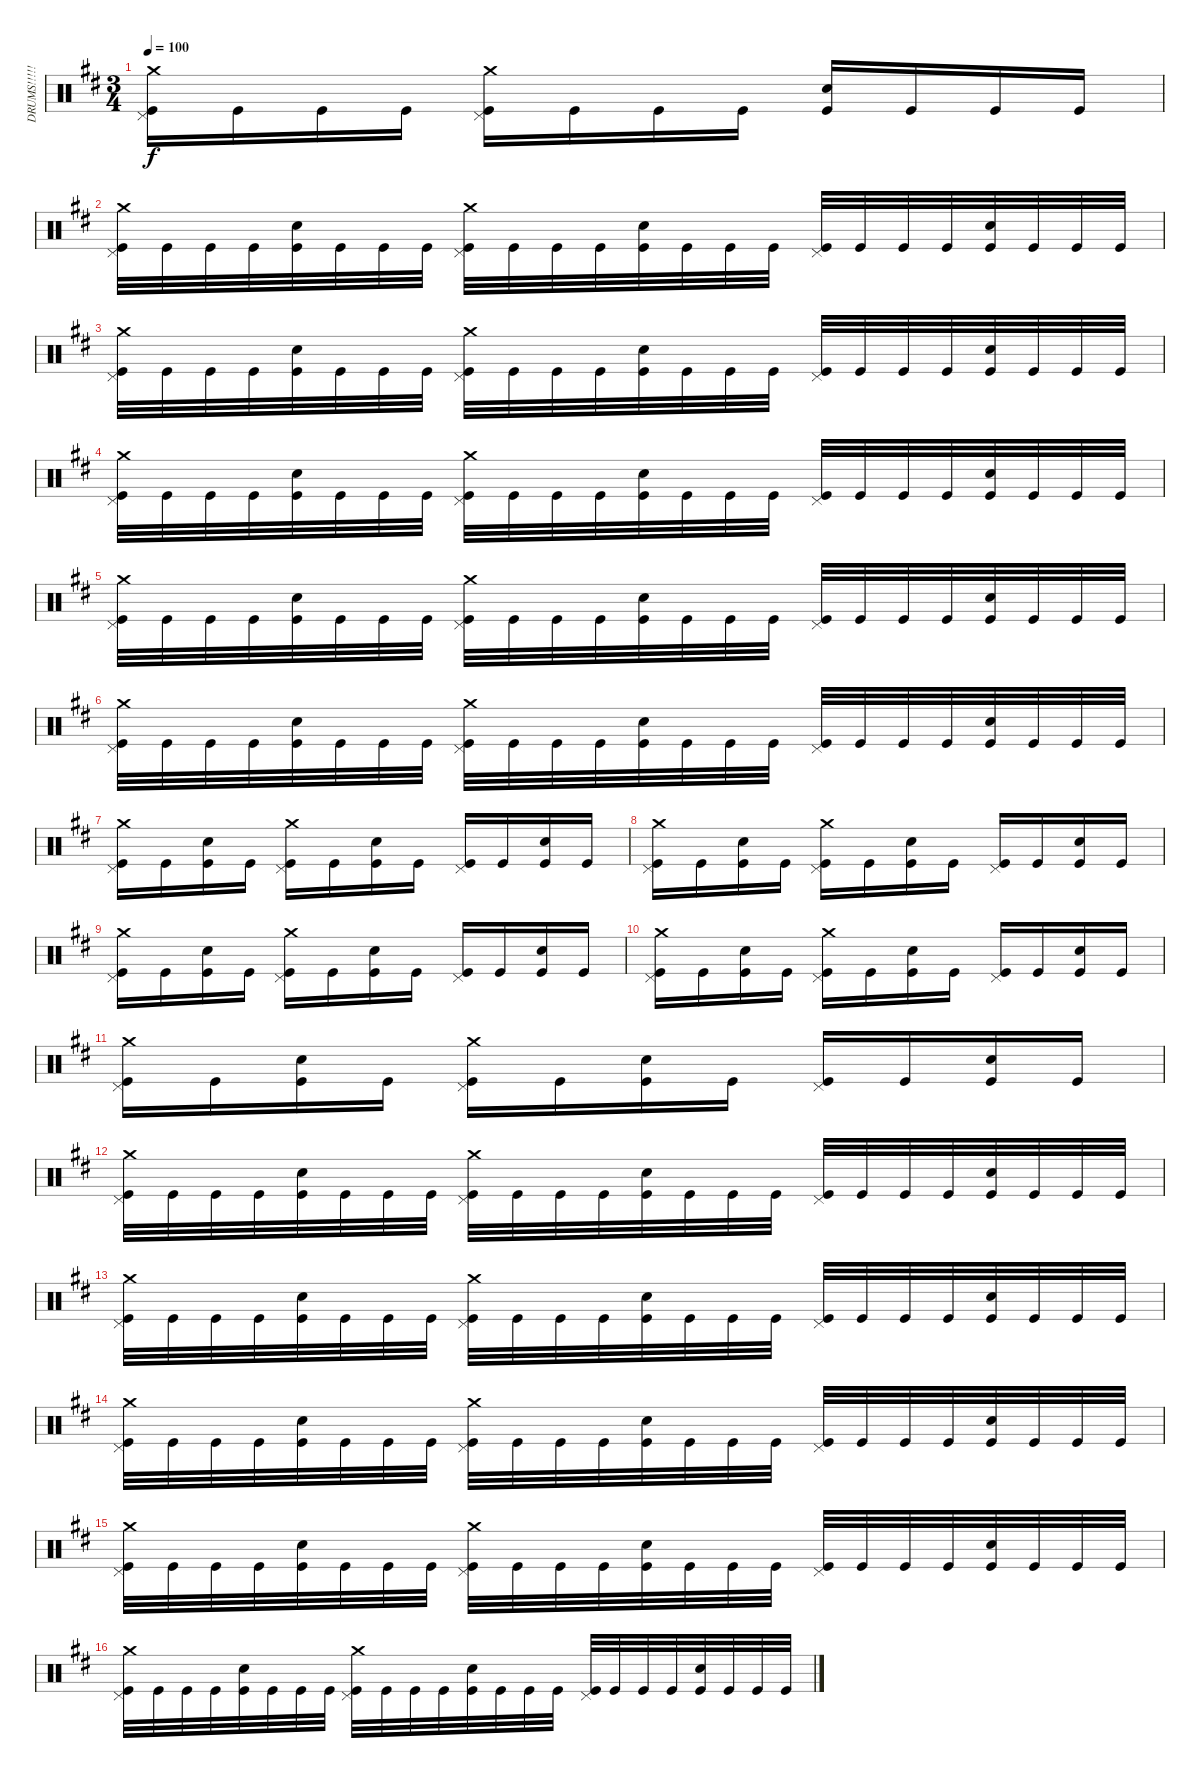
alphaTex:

\track ("DRUMS!!!!!" "DRUMS!!!!!") {instrument percussion}
\staff {score}
\articulation defaults
\ts (3 4)
\tempo 100
\clef neutral
\ks d
("Kick (hit)" "Pedal Hi-Hat (hit)" "Crash medium (hit)").16{dy f} "Kick (hit)".16 "Kick (hit)".16 "Kick (hit)".16 ("Kick (hit)" "Pedal Hi-Hat (hit)" "Crash medium (hit)").16 "Kick (hit)".16 "Kick (hit)".16 "Kick (hit)".16 ("Kick (hit)" "Snare (hit) 2").16 "Kick (hit)".16 "Kick (hit)".16 "Kick (hit)".16 |
("Kick (hit)" "Pedal Hi-Hat (hit)" "Crash medium (hit)").32 "Kick (hit)".32 "Kick (hit)".32 "Kick (hit)".32 ("Kick (hit)" "Snare (hit) 2").32 "Kick (hit)".32 "Kick (hit)".32 "Kick (hit)".32 ("Kick (hit)" "Pedal Hi-Hat (hit)" "Crash medium (hit)").32 "Kick (hit)".32 "Kick (hit)".32 "Kick (hit)".32 ("Kick (hit)" "Snare (hit) 2").32 "Kick (hit)".32 "Kick (hit)".32 "Kick (hit)".32 ("Kick (hit)" "Pedal Hi-Hat (hit)").32 "Kick (hit)".32 "Kick (hit)".32 "Kick (hit)".32 ("Kick (hit)" "Snare (hit) 2").32 "Kick (hit)".32 "Kick (hit)".32 "Kick (hit)".32 |
("Kick (hit)" "Pedal Hi-Hat (hit)" "Crash medium (hit)").32 "Kick (hit)".32 "Kick (hit)".32 "Kick (hit)".32 ("Kick (hit)" "Snare (hit) 2").32 "Kick (hit)".32 "Kick (hit)".32 "Kick (hit)".32 ("Kick (hit)" "Pedal Hi-Hat (hit)" "Crash medium (hit)").32 "Kick (hit)".32 "Kick (hit)".32 "Kick (hit)".32 ("Kick (hit)" "Snare (hit) 2").32 "Kick (hit)".32 "Kick (hit)".32 "Kick (hit)".32 ("Kick (hit)" "Pedal Hi-Hat (hit)").32 "Kick (hit)".32 "Kick (hit)".32 "Kick (hit)".32 ("Kick (hit)" "Snare (hit) 2").32 "Kick (hit)".32 "Kick (hit)".32 "Kick (hit)".32 |
("Kick (hit)" "Pedal Hi-Hat (hit)" "Crash medium (hit)").32 "Kick (hit)".32 "Kick (hit)".32 "Kick (hit)".32 ("Kick (hit)" "Snare (hit) 2").32 "Kick (hit)".32 "Kick (hit)".32 "Kick (hit)".32 ("Kick (hit)" "Pedal Hi-Hat (hit)" "Crash medium (hit)").32 "Kick (hit)".32 "Kick (hit)".32 "Kick (hit)".32 ("Kick (hit)" "Snare (hit) 2").32 "Kick (hit)".32 "Kick (hit)".32 "Kick (hit)".32 ("Kick (hit)" "Pedal Hi-Hat (hit)").32 "Kick (hit)".32 "Kick (hit)".32 "Kick (hit)".32 ("Kick (hit)" "Snare (hit) 2").32 "Kick (hit)".32 "Kick (hit)".32 "Kick (hit)".32 |
("Kick (hit)" "Pedal Hi-Hat (hit)" "Crash medium (hit)").32 "Kick (hit)".32 "Kick (hit)".32 "Kick (hit)".32 ("Kick (hit)" "Snare (hit) 2").32 "Kick (hit)".32 "Kick (hit)".32 "Kick (hit)".32 ("Kick (hit)" "Pedal Hi-Hat (hit)" "Crash medium (hit)").32 "Kick (hit)".32 "Kick (hit)".32 "Kick (hit)".32 ("Kick (hit)" "Snare (hit) 2").32 "Kick (hit)".32 "Kick (hit)".32 "Kick (hit)".32 ("Kick (hit)" "Pedal Hi-Hat (hit)").32 "Kick (hit)".32 "Kick (hit)".32 "Kick (hit)".32 ("Kick (hit)" "Snare (hit) 2").32 "Kick (hit)".32 "Kick (hit)".32 "Kick (hit)".32 |
("Kick (hit)" "Pedal Hi-Hat (hit)" "Crash medium (hit)").32 "Kick (hit)".32 "Kick (hit)".32 "Kick (hit)".32 ("Kick (hit)" "Snare (hit) 2").32 "Kick (hit)".32 "Kick (hit)".32 "Kick (hit)".32 ("Kick (hit)" "Pedal Hi-Hat (hit)" "Crash medium (hit)").32 "Kick (hit)".32 "Kick (hit)".32 "Kick (hit)".32 ("Kick (hit)" "Snare (hit) 2").32 "Kick (hit)".32 "Kick (hit)".32 "Kick (hit)".32 ("Kick (hit)" "Pedal Hi-Hat (hit)").32 "Kick (hit)".32 "Kick (hit)".32 "Kick (hit)".32 ("Kick (hit)" "Snare (hit) 2").32 "Kick (hit)".32 "Kick (hit)".32 "Kick (hit)".32 |
("Kick (hit)" "Pedal Hi-Hat (hit)" "Crash medium (hit)").16 "Kick (hit)".16 ("Kick (hit)" "Snare (hit) 2").16 "Kick (hit)".16 ("Kick (hit)" "Pedal Hi-Hat (hit)" "Crash medium (hit)").16 "Kick (hit)".16 ("Kick (hit)" "Snare (hit) 2").16 "Kick (hit)".16 ("Kick (hit)" "Pedal Hi-Hat (hit)").16 "Kick (hit)".16 ("Kick (hit)" "Snare (hit) 2").16 "Kick (hit)".16 |
("Kick (hit)" "Pedal Hi-Hat (hit)" "Crash medium (hit)").16 "Kick (hit)".16 ("Kick (hit)" "Snare (hit) 2").16 "Kick (hit)".16 ("Kick (hit)" "Pedal Hi-Hat (hit)" "Crash medium (hit)").16 "Kick (hit)".16 ("Kick (hit)" "Snare (hit) 2").16 "Kick (hit)".16 ("Kick (hit)" "Pedal Hi-Hat (hit)").16 "Kick (hit)".16 ("Kick (hit)" "Snare (hit) 2").16 "Kick (hit)".16 |
("Kick (hit)" "Pedal Hi-Hat (hit)" "Crash medium (hit)").16 "Kick (hit)".16 ("Kick (hit)" "Snare (hit) 2").16 "Kick (hit)".16 ("Kick (hit)" "Pedal Hi-Hat (hit)" "Crash medium (hit)").16 "Kick (hit)".16 ("Kick (hit)" "Snare (hit) 2").16 "Kick (hit)".16 ("Kick (hit)" "Pedal Hi-Hat (hit)").16 "Kick (hit)".16 ("Kick (hit)" "Snare (hit) 2").16 "Kick (hit)".16 |
("Kick (hit)" "Pedal Hi-Hat (hit)" "Crash medium (hit)").16 "Kick (hit)".16 ("Kick (hit)" "Snare (hit) 2").16 "Kick (hit)".16 ("Kick (hit)" "Pedal Hi-Hat (hit)" "Crash medium (hit)").16 "Kick (hit)".16 ("Kick (hit)" "Snare (hit) 2").16 "Kick (hit)".16 ("Kick (hit)" "Pedal Hi-Hat (hit)").16 "Kick (hit)".16 ("Kick (hit)" "Snare (hit) 2").16 "Kick (hit)".16 |
("Kick (hit)" "Pedal Hi-Hat (hit)" "Crash medium (hit)").16 "Kick (hit)".16 ("Kick (hit)" "Snare (hit) 2").16 "Kick (hit)".16 ("Kick (hit)" "Pedal Hi-Hat (hit)" "Crash medium (hit)").16 "Kick (hit)".16 ("Kick (hit)" "Snare (hit) 2").16 "Kick (hit)".16 ("Kick (hit)" "Pedal Hi-Hat (hit)").16 "Kick (hit)".16 ("Kick (hit)" "Snare (hit) 2").16 "Kick (hit)".16 |
("Kick (hit)" "Pedal Hi-Hat (hit)" "Crash medium (hit)").32 "Kick (hit)".32 "Kick (hit)".32 "Kick (hit)".32 ("Kick (hit)" "Snare (hit) 2").32 "Kick (hit)".32 "Kick (hit)".32 "Kick (hit)".32 ("Kick (hit)" "Pedal Hi-Hat (hit)" "Crash medium (hit)").32 "Kick (hit)".32 "Kick (hit)".32 "Kick (hit)".32 ("Kick (hit)" "Snare (hit) 2").32 "Kick (hit)".32 "Kick (hit)".32 "Kick (hit)".32 ("Kick (hit)" "Pedal Hi-Hat (hit)").32 "Kick (hit)".32 "Kick (hit)".32 "Kick (hit)".32 ("Kick (hit)" "Snare (hit) 2").32 "Kick (hit)".32 "Kick (hit)".32 "Kick (hit)".32 |
("Kick (hit)" "Pedal Hi-Hat (hit)" "Crash medium (hit)").32 "Kick (hit)".32 "Kick (hit)".32 "Kick (hit)".32 ("Kick (hit)" "Snare (hit) 2").32 "Kick (hit)".32 "Kick (hit)".32 "Kick (hit)".32 ("Kick (hit)" "Pedal Hi-Hat (hit)" "Crash medium (hit)").32 "Kick (hit)".32 "Kick (hit)".32 "Kick (hit)".32 ("Kick (hit)" "Snare (hit) 2").32 "Kick (hit)".32 "Kick (hit)".32 "Kick (hit)".32 ("Kick (hit)" "Pedal Hi-Hat (hit)").32 "Kick (hit)".32 "Kick (hit)".32 "Kick (hit)".32 ("Kick (hit)" "Snare (hit) 2").32 "Kick (hit)".32 "Kick (hit)".32 "Kick (hit)".32 |
("Kick (hit)" "Pedal Hi-Hat (hit)" "Crash medium (hit)").32 "Kick (hit)".32 "Kick (hit)".32 "Kick (hit)".32 ("Kick (hit)" "Snare (hit) 2").32 "Kick (hit)".32 "Kick (hit)".32 "Kick (hit)".32 ("Kick (hit)" "Pedal Hi-Hat (hit)" "Crash medium (hit)").32 "Kick (hit)".32 "Kick (hit)".32 "Kick (hit)".32 ("Kick (hit)" "Snare (hit) 2").32 "Kick (hit)".32 "Kick (hit)".32 "Kick (hit)".32 ("Kick (hit)" "Pedal Hi-Hat (hit)").32 "Kick (hit)".32 "Kick (hit)".32 "Kick (hit)".32 ("Kick (hit)" "Snare (hit) 2").32 "Kick (hit)".32 "Kick (hit)".32 "Kick (hit)".32 |
("Kick (hit)" "Pedal Hi-Hat (hit)" "Crash medium (hit)").32 "Kick (hit)".32 "Kick (hit)".32 "Kick (hit)".32 ("Kick (hit)" "Snare (hit) 2").32 "Kick (hit)".32 "Kick (hit)".32 "Kick (hit)".32 ("Kick (hit)" "Pedal Hi-Hat (hit)" "Crash medium (hit)").32 "Kick (hit)".32 "Kick (hit)".32 "Kick (hit)".32 ("Kick (hit)" "Snare (hit) 2").32 "Kick (hit)".32 "Kick (hit)".32 "Kick (hit)".32 ("Kick (hit)" "Pedal Hi-Hat (hit)").32 "Kick (hit)".32 "Kick (hit)".32 "Kick (hit)".32 ("Kick (hit)" "Snare (hit) 2").32 "Kick (hit)".32 "Kick (hit)".32 "Kick (hit)".32 |
("Kick (hit)" "Pedal Hi-Hat (hit)" "Crash medium (hit)").32 "Kick (hit)".32 "Kick (hit)".32 "Kick (hit)".32 ("Kick (hit)" "Snare (hit) 2").32 "Kick (hit)".32 "Kick (hit)".32 "Kick (hit)".32 ("Kick (hit)" "Pedal Hi-Hat (hit)" "Crash medium (hit)").32 "Kick (hit)".32 "Kick (hit)".32 "Kick (hit)".32 ("Kick (hit)" "Snare (hit) 2").32 "Kick (hit)".32 "Kick (hit)".32 "Kick (hit)".32 ("Kick (hit)" "Pedal Hi-Hat (hit)").32 "Kick (hit)".32 "Kick (hit)".32 "Kick (hit)".32 ("Kick (hit)" "Snare (hit) 2").32 "Kick (hit)".32 "Kick (hit)".32 "Kick (hit)".32
